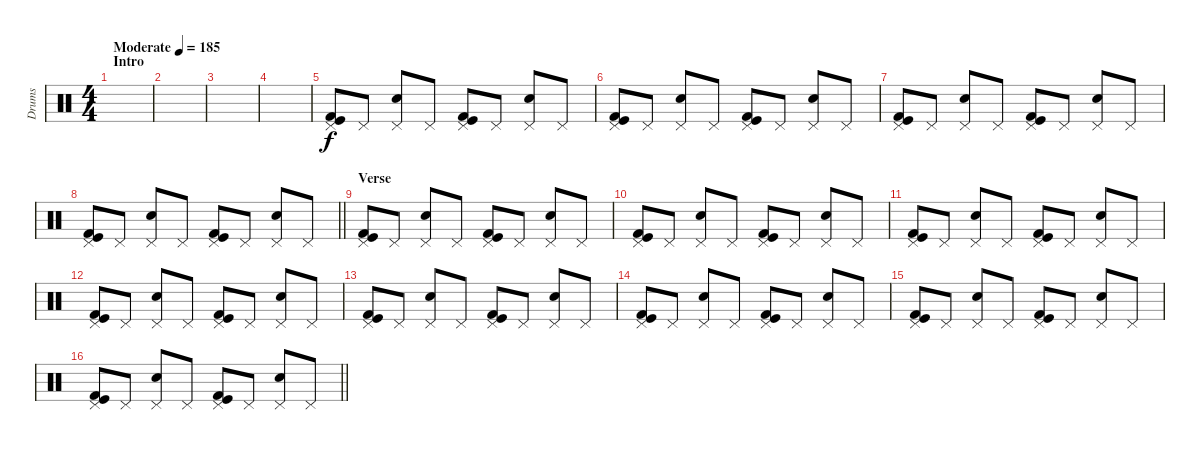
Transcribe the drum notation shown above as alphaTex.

\track ("Drums" "Drums") {instrument percussion}
\staff {score}
\articulation defaults
\ts (4 4)
\section ("" "Intro")
\tempo (185 "Moderate")
\clef neutral
\ks c
|
|
|
|
("Pedal Hi-Hat (hit)" "Kick (hit)" "Kick (hit) 2").8 "Pedal Hi-Hat (hit)".8 ("Pedal Hi-Hat (hit)" "Snare (hit) 2").8 "Pedal Hi-Hat (hit)".8 ("Pedal Hi-Hat (hit)" "Kick (hit)" "Kick (hit) 2").8 "Pedal Hi-Hat (hit)".8 ("Pedal Hi-Hat (hit)" "Snare (hit) 2").8 "Pedal Hi-Hat (hit)".8 |
("Pedal Hi-Hat (hit)" "Kick (hit)" "Kick (hit) 2").8 "Pedal Hi-Hat (hit)".8 ("Pedal Hi-Hat (hit)" "Snare (hit) 2").8 "Pedal Hi-Hat (hit)".8 ("Pedal Hi-Hat (hit)" "Kick (hit)" "Kick (hit) 2").8 "Pedal Hi-Hat (hit)".8 ("Pedal Hi-Hat (hit)" "Snare (hit) 2").8 "Pedal Hi-Hat (hit)".8 |
("Pedal Hi-Hat (hit)" "Kick (hit)" "Kick (hit) 2").8 "Pedal Hi-Hat (hit)".8 ("Pedal Hi-Hat (hit)" "Snare (hit) 2").8 "Pedal Hi-Hat (hit)".8 ("Pedal Hi-Hat (hit)" "Kick (hit)" "Kick (hit) 2").8 "Pedal Hi-Hat (hit)".8 ("Pedal Hi-Hat (hit)" "Snare (hit) 2").8 "Pedal Hi-Hat (hit)".8 |
\barLineRight lightlight
("Pedal Hi-Hat (hit)" "Kick (hit)" "Kick (hit) 2").8 "Pedal Hi-Hat (hit)".8 ("Pedal Hi-Hat (hit)" "Snare (hit) 2").8 "Pedal Hi-Hat (hit)".8 ("Pedal Hi-Hat (hit)" "Kick (hit)" "Kick (hit) 2").8 "Pedal Hi-Hat (hit)".8 ("Pedal Hi-Hat (hit)" "Snare (hit) 2").8 "Pedal Hi-Hat (hit)".8 |
\section ("" "Verse")
("Pedal Hi-Hat (hit)" "Kick (hit)" "Kick (hit) 2").8 "Pedal Hi-Hat (hit)".8 ("Pedal Hi-Hat (hit)" "Snare (hit) 2").8 "Pedal Hi-Hat (hit)".8 ("Pedal Hi-Hat (hit)" "Kick (hit)" "Kick (hit) 2").8 "Pedal Hi-Hat (hit)".8 ("Pedal Hi-Hat (hit)" "Snare (hit) 2").8 "Pedal Hi-Hat (hit)".8 |
("Pedal Hi-Hat (hit)" "Kick (hit)" "Kick (hit) 2").8 "Pedal Hi-Hat (hit)".8 ("Pedal Hi-Hat (hit)" "Snare (hit) 2").8 "Pedal Hi-Hat (hit)".8 ("Pedal Hi-Hat (hit)" "Kick (hit)" "Kick (hit) 2").8 "Pedal Hi-Hat (hit)".8 ("Pedal Hi-Hat (hit)" "Snare (hit) 2").8 "Pedal Hi-Hat (hit)".8 |
("Pedal Hi-Hat (hit)" "Kick (hit)" "Kick (hit) 2").8 "Pedal Hi-Hat (hit)".8 ("Pedal Hi-Hat (hit)" "Snare (hit) 2").8 "Pedal Hi-Hat (hit)".8 ("Pedal Hi-Hat (hit)" "Kick (hit)" "Kick (hit) 2").8 "Pedal Hi-Hat (hit)".8 ("Pedal Hi-Hat (hit)" "Snare (hit) 2").8 "Pedal Hi-Hat (hit)".8 |
("Pedal Hi-Hat (hit)" "Kick (hit)" "Kick (hit) 2").8 "Pedal Hi-Hat (hit)".8 ("Pedal Hi-Hat (hit)" "Snare (hit) 2").8 "Pedal Hi-Hat (hit)".8 ("Pedal Hi-Hat (hit)" "Kick (hit)" "Kick (hit) 2").8 "Pedal Hi-Hat (hit)".8 ("Pedal Hi-Hat (hit)" "Snare (hit) 2").8 "Pedal Hi-Hat (hit)".8 |
("Pedal Hi-Hat (hit)" "Kick (hit)" "Kick (hit) 2").8 "Pedal Hi-Hat (hit)".8 ("Pedal Hi-Hat (hit)" "Snare (hit) 2").8 "Pedal Hi-Hat (hit)".8 ("Pedal Hi-Hat (hit)" "Kick (hit)" "Kick (hit) 2").8 "Pedal Hi-Hat (hit)".8 ("Pedal Hi-Hat (hit)" "Snare (hit) 2").8 "Pedal Hi-Hat (hit)".8 |
("Pedal Hi-Hat (hit)" "Kick (hit)" "Kick (hit) 2").8 "Pedal Hi-Hat (hit)".8 ("Pedal Hi-Hat (hit)" "Snare (hit) 2").8 "Pedal Hi-Hat (hit)".8 ("Pedal Hi-Hat (hit)" "Kick (hit)" "Kick (hit) 2").8 "Pedal Hi-Hat (hit)".8 ("Pedal Hi-Hat (hit)" "Snare (hit) 2").8 "Pedal Hi-Hat (hit)".8 |
("Pedal Hi-Hat (hit)" "Kick (hit)" "Kick (hit) 2").8 "Pedal Hi-Hat (hit)".8 ("Pedal Hi-Hat (hit)" "Snare (hit) 2").8 "Pedal Hi-Hat (hit)".8 ("Pedal Hi-Hat (hit)" "Kick (hit)" "Kick (hit) 2").8 "Pedal Hi-Hat (hit)".8 ("Pedal Hi-Hat (hit)" "Snare (hit) 2").8 "Pedal Hi-Hat (hit)".8 |
\barLineRight lightlight
("Pedal Hi-Hat (hit)" "Kick (hit)" "Kick (hit) 2").8 "Pedal Hi-Hat (hit)".8 ("Pedal Hi-Hat (hit)" "Snare (hit) 2").8 "Pedal Hi-Hat (hit)".8 ("Pedal Hi-Hat (hit)" "Kick (hit)" "Kick (hit) 2").8 "Pedal Hi-Hat (hit)".8 ("Pedal Hi-Hat (hit)" "Snare (hit) 2").8 "Pedal Hi-Hat (hit)".8
